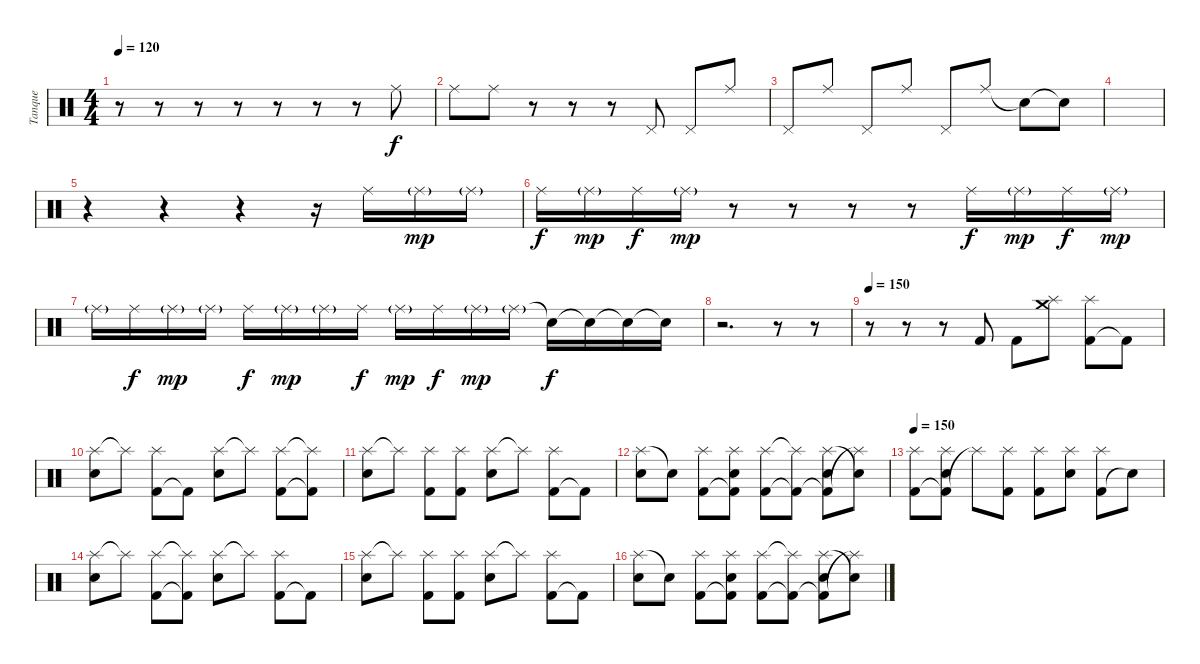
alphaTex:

\track ("Tanque" "Tanque") {instrument percussion}
\staff {score}
\articulation defaults
\ts (4 4)
\tempo 120
\clef neutral
\ks c
r.8{dy f} r.8 r.8 r.8 r.8 r.8 r.8 "Ride (middle)".8 |
"Ride (middle)".8 "Ride (middle)".8 r.8 r.8 r.8 "Pedal Hi-Hat (hit)".8 "Pedal Hi-Hat (hit)".8 "Ride (middle)".8 |
"Pedal Hi-Hat (hit)".8 "Ride (middle)".8 "Pedal Hi-Hat (hit)".8 "Ride (middle)".8 "Pedal Hi-Hat (hit)".8 "Ride (middle)".8 "Snare (hit)"{t}.8 "Snare (hit)"{t}.8 |
|
r.4 r.4 r.4 r.16 "Ride (middle)".16 "Ride (middle)"{g}.16{dy mp} "Ride (middle)"{g}.16 |
"Ride (middle)".16{dy f} "Ride (middle)"{g}.16{dy mp} "Ride (middle)".16{dy f} "Ride (middle)"{g}.16{dy mp} r.8 r.8 r.8 r.8 "Ride (middle)".16{dy f} "Ride (middle)"{g}.16{dy mp} "Ride (middle)".16{dy f} "Ride (middle)"{g}.16{dy mp} |
"Ride (middle)"{g}.16 "Ride (middle)".16{dy f} "Ride (middle)"{g}.16{dy mp} "Ride (middle)"{g}.16 "Ride (middle)".16{dy f} "Ride (middle)"{g}.16{dy mp} "Ride (middle)"{g}.16 "Ride (middle)".16{dy f} "Ride (middle)"{g}.16{dy mp} "Ride (middle)".16{dy f} "Ride (middle)"{g}.16{dy mp} "Ride (middle)"{g}.16 "Snare (hit)"{t}.16{dy f} "Snare (hit)"{t}.16 "Snare (hit)"{t}.16 "Snare (hit)"{t}.16 |
r.2{d} r.8 r.8 |
\tempo 150
r.8 r.8 r.8 "Kick (hit) 2".8 "Kick (hit) 2".8 ("Splash (hit)" "Crash medium (hit)").8 ("Kick (hit) 2" "Splash (hit)").8 "Kick (hit) 2"{t}.8 |
("Splash (hit)" "Snare (hit) 2").8 "Splash (hit)"{t}.8 ("Kick (hit) 2" "Splash (hit)").8 "Kick (hit) 2"{t}.8 ("Splash (hit)" "Snare (hit) 2").8 "Splash (hit)"{t}.8 ("Kick (hit) 2" "Splash (hit)").8 ("Kick (hit) 2"{t} "Splash (hit)"{t}).8 |
("Splash (hit)" "Snare (hit) 2").8 "Splash (hit)"{t}.8 ("Kick (hit) 2" "Splash (hit)").8 ("Kick (hit) 2" "Splash (hit)").8 ("Splash (hit)" "Snare (hit) 2").8 "Splash (hit)"{t}.8 ("Kick (hit) 2" "Splash (hit)").8 "Kick (hit) 2"{t}.8 |
("Splash (hit)" "Snare (hit) 2").8 "Snare (hit)"{t}.8 ("Kick (hit) 2" "Splash (hit)").8 ("Kick (hit) 2"{t} "Splash (hit)" "Snare (hit) 2").8 ("Kick (hit) 2" "Splash (hit)").8 ("Kick (hit) 2"{t} "Splash (hit)"{t}).8 ("Kick (hit) 2"{t} "Splash (hit)" "Snare (hit) 2").8 ("Splash (hit)"{t} "Snare (hit) 2"{t}).8 |
\tempo 150
("Kick (hit) 2" "Splash (hit)").8 ("Kick (hit) 2"{t} "Splash (hit)" "Snare (hit) 2").8 "Splash (hit)"{t}.8 ("Kick (hit) 2" "Splash (hit)").8 ("Kick (hit) 2" "Splash (hit)").8 ("Splash (hit)" "Snare (hit) 2").8 ("Kick (hit) 2" "Splash (hit)").8 "Snare (hit)"{t}.8 |
("Splash (hit)" "Snare (hit) 2").8 "Splash (hit)"{t}.8 ("Kick (hit) 2" "Splash (hit)").8 ("Kick (hit) 2"{t} "Splash (hit)"{t}).8 ("Splash (hit)" "Snare (hit) 2").8 "Splash (hit)"{t}.8 ("Kick (hit) 2" "Splash (hit)").8 "Kick (hit) 2"{t}.8 |
("Splash (hit)" "Snare (hit) 2").8 "Splash (hit)"{t}.8 ("Kick (hit) 2" "Splash (hit)").8 ("Kick (hit) 2" "Splash (hit)").8 ("Splash (hit)" "Snare (hit) 2").8 "Splash (hit)"{t}.8 ("Kick (hit) 2" "Splash (hit)").8 "Kick (hit) 2"{t}.8 |
("Splash (hit)" "Snare (hit) 2").8 "Snare (hit)"{t}.8 ("Kick (hit) 2" "Splash (hit)").8 ("Kick (hit) 2"{t} "Splash (hit)" "Snare (hit) 2").8 ("Kick (hit) 2" "Splash (hit)").8 ("Kick (hit) 2"{t} "Splash (hit)"{t}).8 ("Kick (hit) 2"{t} "Splash (hit)" "Snare (hit) 2").8 ("Splash (hit)"{t} "Snare (hit) 2"{t}).8
